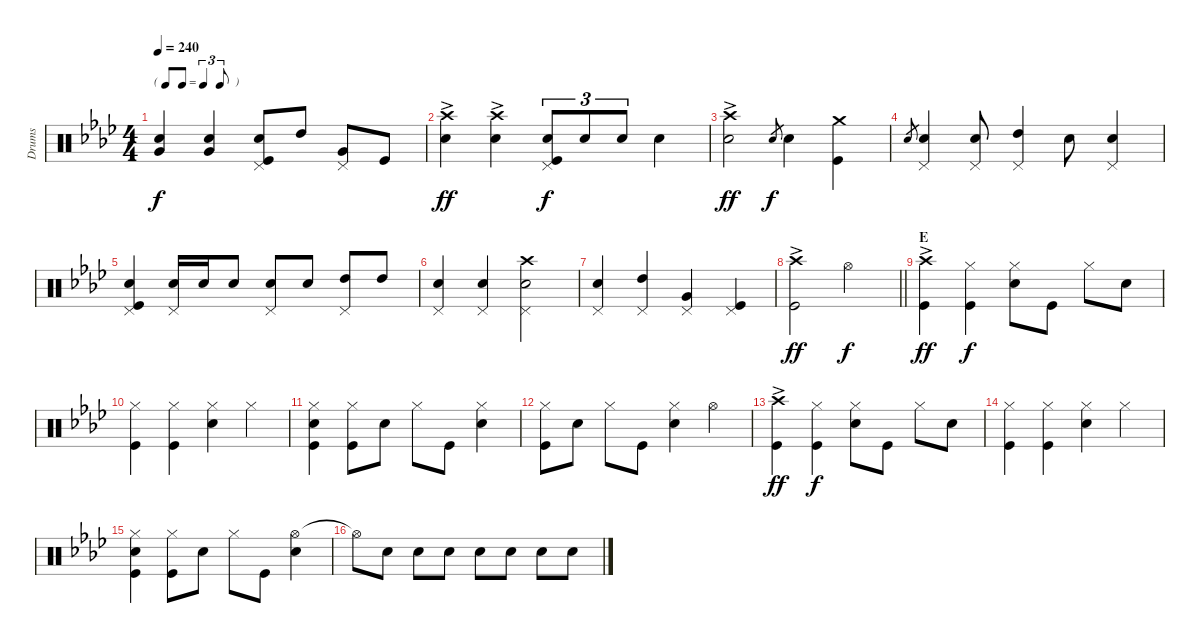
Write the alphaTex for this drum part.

\track ("Drums" "Drums") {instrument percussion}
\staff {score}
\articulation defaults
\ts (4 4)
\tf triplet8th
\tempo 240
\clef neutral
\ks ab
("Snare (hit) 2" "Very Low Tom (hit)").4{dy f} ("Very Low Tom (hit)" "Snare (hit) 2").4 ("Pedal Hi-Hat (hit)" "Kick (hit)" "Snare (hit) 2").8 "High Tom (hit)".8 ("Pedal Hi-Hat (hit)" "Very Low Tom (hit)").8 "Kick (hit)".8 |
("Crash high (hit)"{ac} "Snare (hit) 2").4{dy ff} ("Snare (hit) 2" "Crash high (hit)"{ac}).4 ("Kick (hit)" "Pedal Hi-Hat (hit)" "Snare (hit) 2").8{tu (3 2) dy f} "Snare (hit) 2".8{tu (3 2)} "Snare (hit) 2".8{tu (3 2)} "Snare (hit) 2".4 |
("Snare (hit) 2" "Crash high (hit)"{ac}).2{dy ff} "Snare (hit) 2".8{gr dy f} "Snare (hit) 2".4 ("Crash medium (hit)" "Kick (hit)").4 |
"Snare (hit) 2".8{gr} ("Pedal Hi-Hat (hit)" "Snare (hit) 2").4 ("Snare (hit) 2" "Pedal Hi-Hat (hit)").8 ("Pedal Hi-Hat (hit)" "High Tom (hit)").4 "Snare (hit) 2".8 ("Snare (hit) 2" "Pedal Hi-Hat (hit)").4 |
("Pedal Hi-Hat (hit)" "Kick (hit)" "Snare (hit) 2").4 ("Pedal Hi-Hat (hit)" "Snare (hit) 2").16 "Snare (hit) 2".16 "Snare (hit) 2".8 ("Pedal Hi-Hat (hit)" "Snare (hit) 2").8 "Snare (hit) 2".8 ("Pedal Hi-Hat (hit)" "High Tom (hit)").8 "High Tom (hit)".8 |
("Pedal Hi-Hat (hit)" "Snare (hit) 2").4 ("Snare (hit) 2" "Pedal Hi-Hat (hit)").4 ("Crash high (hit)" "Snare (hit) 2" "Pedal Hi-Hat (hit)").2 |
("Snare (hit) 2" "Pedal Hi-Hat (hit)").4 ("High Tom (hit)" "Pedal Hi-Hat (hit)").4 ("Very Low Tom (hit)" "Pedal Hi-Hat (hit)").4 ("Pedal Hi-Hat (hit)" "Kick (hit)").4 |
\barLineRight lightlight
("Crash high (hit)"{ac} "Kick (hit)").2{dy ff} "Hi-Hat (open)".2{dy f} |
\section ("" "E")
("Crash high (hit)"{ac} "Kick (hit)").4{dy ff} ("Kick (hit)" "Hi-Hat (closed)").4{dy f} ("Hi-Hat (closed)" "Snare (hit) 2").8 "Kick (hit)".8 "Hi-Hat (closed)".8 "Snare (hit) 2".8 |
("Hi-Hat (closed)" "Kick (hit)").4 ("Hi-Hat (closed)" "Kick (hit)").4 ("Hi-Hat (closed)" "Snare (hit) 2").4 "Hi-Hat (closed)".4 |
("Hi-Hat (closed)" "Snare (hit) 2" "Kick (hit)").4 ("Kick (hit)" "Hi-Hat (closed)").8 "Snare (hit) 2".8 "Hi-Hat (closed)".8 "Kick (hit)".8 ("Hi-Hat (closed)" "Snare (hit) 2").4 |
("Hi-Hat (closed)" "Kick (hit)").8 "Snare (hit) 2".8 "Hi-Hat (closed)".8 "Kick (hit)".8 ("Hi-Hat (closed)" "Snare (hit) 2").4 "Hi-Hat (open)".4 |
("Crash high (hit)"{ac} "Kick (hit)").4{dy ff} ("Hi-Hat (closed)" "Kick (hit)").4{dy f} ("Hi-Hat (closed)" "Snare (hit) 2").8 "Kick (hit)".8 "Hi-Hat (closed)".8 "Snare (hit) 2".8 |
("Kick (hit)" "Hi-Hat (closed)").4 ("Kick (hit)" "Hi-Hat (closed)").4 ("Hi-Hat (closed)" "Snare (hit) 2").4 "Hi-Hat (closed)".4 |
("Hi-Hat (closed)" "Kick (hit)" "Snare (hit) 2").4 ("Hi-Hat (closed)" "Kick (hit)").8 "Snare (hit) 2".8 "Hi-Hat (closed)".8 "Kick (hit)".8 ("Hi-Hat (open)" "Snare (hit) 2").4 |
"Hi-Hat (open)"{t}.8 "Snare (hit) 2".8 "Snare (hit) 2".8 "Snare (hit) 2".8 "Snare (hit) 2".8 "Snare (hit) 2".8 "Snare (hit) 2".8 "Snare (hit) 2".8
